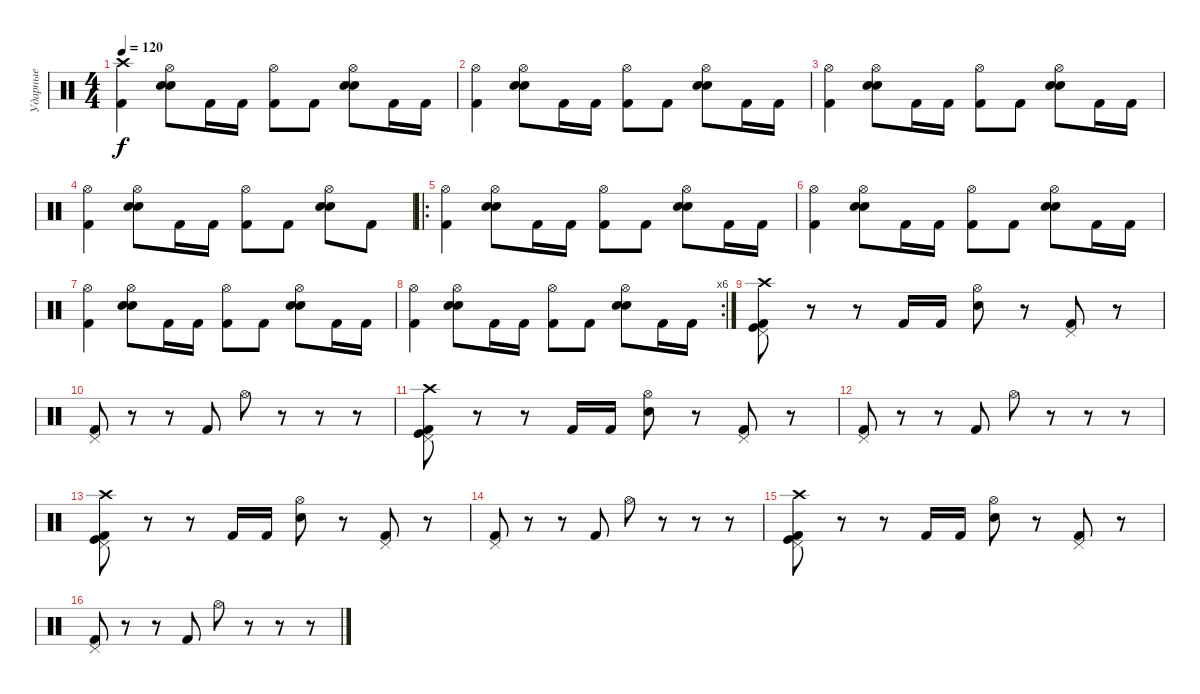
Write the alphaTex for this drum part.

\track ("Ударные" "Ударные") {instrument percussion}
\staff {score}
\articulation defaults
\ts (4 4)
\tempo 120
\clef neutral
\ks c
("Crash high (hit)" "Kick (hit) 2").4{dy f} ("Hi-Hat (open)" "Electric Snare (hit)" "Electric Snare (hit)").8 "Kick (hit) 2".16 "Kick (hit) 2".16 ("Kick (hit) 2" "Hi-Hat (open)").8 "Kick (hit) 2".8 ("Electric Snare (hit)" "Electric Snare (hit)" "Hi-Hat (open)").8 "Kick (hit) 2".16 "Kick (hit) 2".16 |
("Hi-Hat (open)" "Kick (hit) 2").4 ("Hi-Hat (open)" "Electric Snare (hit)" "Electric Snare (hit)").8 "Kick (hit) 2".16 "Kick (hit) 2".16 ("Kick (hit) 2" "Hi-Hat (open)").8 "Kick (hit) 2".8 ("Electric Snare (hit)" "Electric Snare (hit)" "Hi-Hat (open)").8 "Kick (hit) 2".16 "Kick (hit) 2".16 |
("Hi-Hat (open)" "Kick (hit) 2").4 ("Hi-Hat (open)" "Electric Snare (hit)" "Electric Snare (hit)").8 "Kick (hit) 2".16 "Kick (hit) 2".16 ("Kick (hit) 2" "Hi-Hat (open)").8 "Kick (hit) 2".8 ("Electric Snare (hit)" "Electric Snare (hit)" "Hi-Hat (open)").8 "Kick (hit) 2".16 "Kick (hit) 2".16 |
("Hi-Hat (open)" "Kick (hit) 2").4 ("Hi-Hat (open)" "Electric Snare (hit)" "Electric Snare (hit)").8 "Kick (hit) 2".16 "Kick (hit) 2".16 ("Kick (hit) 2" "Hi-Hat (open)").8 "Kick (hit) 2".8 ("Electric Snare (hit)" "Electric Snare (hit)" "Hi-Hat (open)").8 "Kick (hit) 2".8 |
\ro
("Hi-Hat (open)" "Kick (hit) 2").4 ("Hi-Hat (open)" "Electric Snare (hit)" "Electric Snare (hit)").8 "Kick (hit) 2".16 "Kick (hit) 2".16 ("Kick (hit) 2" "Hi-Hat (open)").8 "Kick (hit) 2".8 ("Electric Snare (hit)" "Electric Snare (hit)" "Hi-Hat (open)").8 "Kick (hit) 2".16 "Kick (hit) 2".16 |
("Hi-Hat (open)" "Kick (hit) 2").4 ("Hi-Hat (open)" "Electric Snare (hit)" "Electric Snare (hit)").8 "Kick (hit) 2".16 "Kick (hit) 2".16 ("Kick (hit) 2" "Hi-Hat (open)").8 "Kick (hit) 2".8 ("Electric Snare (hit)" "Electric Snare (hit)" "Hi-Hat (open)").8 "Kick (hit) 2".16 "Kick (hit) 2".16 |
("Hi-Hat (open)" "Kick (hit) 2").4 ("Hi-Hat (open)" "Electric Snare (hit)" "Electric Snare (hit)").8 "Kick (hit) 2".16 "Kick (hit) 2".16 ("Kick (hit) 2" "Hi-Hat (open)").8 "Kick (hit) 2".8 ("Electric Snare (hit)" "Electric Snare (hit)" "Hi-Hat (open)").8 "Kick (hit) 2".16 "Kick (hit) 2".16 |
\rc 6
("Hi-Hat (open)" "Kick (hit) 2").4 ("Hi-Hat (open)" "Electric Snare (hit)" "Electric Snare (hit)").8 "Kick (hit) 2".16 "Kick (hit) 2".16 ("Kick (hit) 2" "Hi-Hat (open)").8 "Kick (hit) 2".8 ("Electric Snare (hit)" "Electric Snare (hit)" "Hi-Hat (open)").8 "Kick (hit) 2".16 "Kick (hit) 2".16 |
("Kick (hit) 2" "Kick (hit)" "Pedal Hi-Hat (hit)" "Crash high (hit)").8 r.8 r.8 "Kick (hit) 2".16 "Kick (hit) 2".16 ("Electric Snare (hit)" "Hi-Hat (open)").8 r.8 ("Kick (hit) 2" "Pedal Hi-Hat (hit)").8 r.8 |
("Kick (hit) 2" "Pedal Hi-Hat (hit)").8 r.8 r.8 "Kick (hit) 2".8 "Hi-Hat (open)".8 r.8 r.8 r.8 |
("Kick (hit) 2" "Kick (hit)" "Pedal Hi-Hat (hit)" "Crash high (hit)").8 r.8 r.8 "Kick (hit) 2".16 "Kick (hit) 2".16 ("Electric Snare (hit)" "Hi-Hat (open)").8 r.8 ("Kick (hit) 2" "Pedal Hi-Hat (hit)").8 r.8 |
("Kick (hit) 2" "Pedal Hi-Hat (hit)").8 r.8 r.8 "Kick (hit) 2".8 "Hi-Hat (open)".8 r.8 r.8 r.8 |
("Kick (hit) 2" "Kick (hit)" "Pedal Hi-Hat (hit)" "Crash high (hit)").8 r.8 r.8 "Kick (hit) 2".16 "Kick (hit) 2".16 ("Electric Snare (hit)" "Hi-Hat (open)").8 r.8 ("Kick (hit) 2" "Pedal Hi-Hat (hit)").8 r.8 |
("Kick (hit) 2" "Pedal Hi-Hat (hit)").8 r.8 r.8 "Kick (hit) 2".8 "Hi-Hat (open)".8 r.8 r.8 r.8 |
("Kick (hit) 2" "Kick (hit)" "Pedal Hi-Hat (hit)" "Crash high (hit)").8 r.8 r.8 "Kick (hit) 2".16 "Kick (hit) 2".16 ("Electric Snare (hit)" "Hi-Hat (open)").8 r.8 ("Kick (hit) 2" "Pedal Hi-Hat (hit)").8 r.8 |
("Kick (hit) 2" "Pedal Hi-Hat (hit)").8 r.8 r.8 "Kick (hit) 2".8 "Hi-Hat (open)".8 r.8 r.8 r.8
